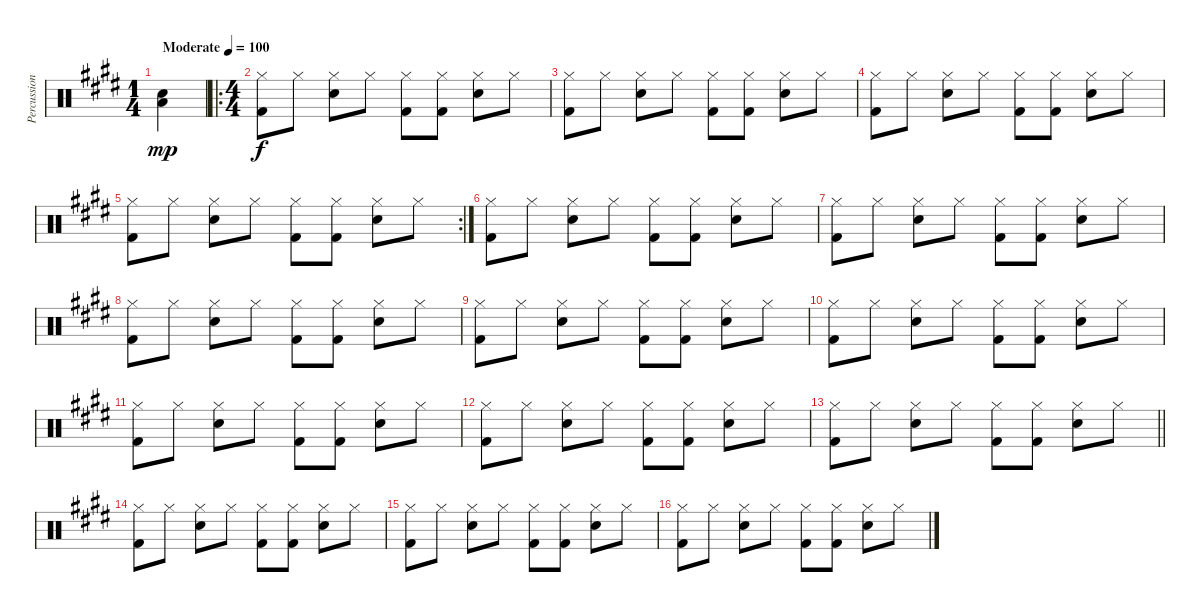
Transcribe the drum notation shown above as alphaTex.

\track ("Percussion" "Percussion") {instrument percussion}
\staff {score}
\articulation defaults
\ts (1 4)
\tempo (100 "Moderate")
\clef neutral
\ks e
("Snare (hit) 2" "Low Floor Tom (hit)").4{dy mp} |
\ro
\ts (4 4)
("Hi-Hat (closed)" "Kick (hit) 2").8{dy f} "Hi-Hat (closed)".8 ("Hi-Hat (closed)" "Snare (hit) 2").8 "Hi-Hat (closed)".8 ("Hi-Hat (closed)" "Kick (hit) 2").8 ("Hi-Hat (closed)" "Kick (hit) 2").8 ("Hi-Hat (closed)" "Snare (hit) 2").8 "Hi-Hat (closed)".8 |
("Hi-Hat (closed)" "Kick (hit) 2").8 "Hi-Hat (closed)".8 ("Hi-Hat (closed)" "Snare (hit) 2").8 "Hi-Hat (closed)".8 ("Hi-Hat (closed)" "Kick (hit) 2").8 ("Hi-Hat (closed)" "Kick (hit) 2").8 ("Hi-Hat (closed)" "Snare (hit) 2").8 "Hi-Hat (closed)".8 |
("Hi-Hat (closed)" "Kick (hit) 2").8 "Hi-Hat (closed)".8 ("Hi-Hat (closed)" "Snare (hit) 2").8 "Hi-Hat (closed)".8 ("Hi-Hat (closed)" "Kick (hit) 2").8 ("Hi-Hat (closed)" "Kick (hit) 2").8 ("Hi-Hat (closed)" "Snare (hit) 2").8 "Hi-Hat (closed)".8 |
\rc 2
("Hi-Hat (closed)" "Kick (hit) 2").8 "Hi-Hat (closed)".8 ("Hi-Hat (closed)" "Snare (hit) 2").8 "Hi-Hat (closed)".8 ("Hi-Hat (closed)" "Kick (hit) 2").8 ("Hi-Hat (closed)" "Kick (hit) 2").8 ("Hi-Hat (closed)" "Snare (hit) 2").8 "Hi-Hat (closed)".8 |
("Hi-Hat (closed)" "Kick (hit) 2").8 "Hi-Hat (closed)".8 ("Hi-Hat (closed)" "Snare (hit) 2").8 "Hi-Hat (closed)".8 ("Hi-Hat (closed)" "Kick (hit) 2").8 ("Hi-Hat (closed)" "Kick (hit) 2").8 ("Hi-Hat (closed)" "Snare (hit) 2").8 "Hi-Hat (closed)".8 |
("Hi-Hat (closed)" "Kick (hit) 2").8 "Hi-Hat (closed)".8 ("Hi-Hat (closed)" "Snare (hit) 2").8 "Hi-Hat (closed)".8 ("Hi-Hat (closed)" "Kick (hit) 2").8 ("Hi-Hat (closed)" "Kick (hit) 2").8 ("Hi-Hat (closed)" "Snare (hit) 2").8 "Hi-Hat (closed)".8 |
("Hi-Hat (closed)" "Kick (hit) 2").8 "Hi-Hat (closed)".8 ("Hi-Hat (closed)" "Snare (hit) 2").8 "Hi-Hat (closed)".8 ("Hi-Hat (closed)" "Kick (hit) 2").8 ("Hi-Hat (closed)" "Kick (hit) 2").8 ("Hi-Hat (closed)" "Snare (hit) 2").8 "Hi-Hat (closed)".8 |
("Hi-Hat (closed)" "Kick (hit) 2").8 "Hi-Hat (closed)".8 ("Hi-Hat (closed)" "Snare (hit) 2").8 "Hi-Hat (closed)".8 ("Hi-Hat (closed)" "Kick (hit) 2").8 ("Hi-Hat (closed)" "Kick (hit) 2").8 ("Hi-Hat (closed)" "Snare (hit) 2").8 "Hi-Hat (closed)".8 |
("Hi-Hat (closed)" "Kick (hit) 2").8 "Hi-Hat (closed)".8 ("Hi-Hat (closed)" "Snare (hit) 2").8 "Hi-Hat (closed)".8 ("Hi-Hat (closed)" "Kick (hit) 2").8 ("Hi-Hat (closed)" "Kick (hit) 2").8 ("Hi-Hat (closed)" "Snare (hit) 2").8 "Hi-Hat (closed)".8 |
("Hi-Hat (closed)" "Kick (hit) 2").8 "Hi-Hat (closed)".8 ("Hi-Hat (closed)" "Snare (hit) 2").8 "Hi-Hat (closed)".8 ("Hi-Hat (closed)" "Kick (hit) 2").8 ("Hi-Hat (closed)" "Kick (hit) 2").8 ("Hi-Hat (closed)" "Snare (hit) 2").8 "Hi-Hat (closed)".8 |
("Hi-Hat (closed)" "Kick (hit) 2").8 "Hi-Hat (closed)".8 ("Hi-Hat (closed)" "Snare (hit) 2").8 "Hi-Hat (closed)".8 ("Hi-Hat (closed)" "Kick (hit) 2").8 ("Hi-Hat (closed)" "Kick (hit) 2").8 ("Hi-Hat (closed)" "Snare (hit) 2").8 "Hi-Hat (closed)".8 |
\barLineRight lightlight
("Hi-Hat (closed)" "Kick (hit) 2").8 "Hi-Hat (closed)".8 ("Hi-Hat (closed)" "Snare (hit) 2").8 "Hi-Hat (closed)".8 ("Hi-Hat (closed)" "Kick (hit) 2").8 ("Hi-Hat (closed)" "Kick (hit) 2").8 ("Hi-Hat (closed)" "Snare (hit) 2").8 "Hi-Hat (closed)".8 |
("Hi-Hat (closed)" "Kick (hit) 2").8 "Hi-Hat (closed)".8 ("Hi-Hat (closed)" "Snare (hit) 2").8 "Hi-Hat (closed)".8 ("Hi-Hat (closed)" "Kick (hit) 2").8 ("Hi-Hat (closed)" "Kick (hit) 2").8 ("Hi-Hat (closed)" "Snare (hit) 2").8 "Hi-Hat (closed)".8 |
("Hi-Hat (closed)" "Kick (hit) 2").8 "Hi-Hat (closed)".8 ("Hi-Hat (closed)" "Snare (hit) 2").8 "Hi-Hat (closed)".8 ("Hi-Hat (closed)" "Kick (hit) 2").8 ("Hi-Hat (closed)" "Kick (hit) 2").8 ("Hi-Hat (closed)" "Snare (hit) 2").8 "Hi-Hat (closed)".8 |
("Hi-Hat (closed)" "Kick (hit) 2").8 "Hi-Hat (closed)".8 ("Hi-Hat (closed)" "Snare (hit) 2").8 "Hi-Hat (closed)".8 ("Hi-Hat (closed)" "Kick (hit) 2").8 ("Hi-Hat (closed)" "Kick (hit) 2").8 ("Hi-Hat (closed)" "Snare (hit) 2").8 "Hi-Hat (closed)".8
